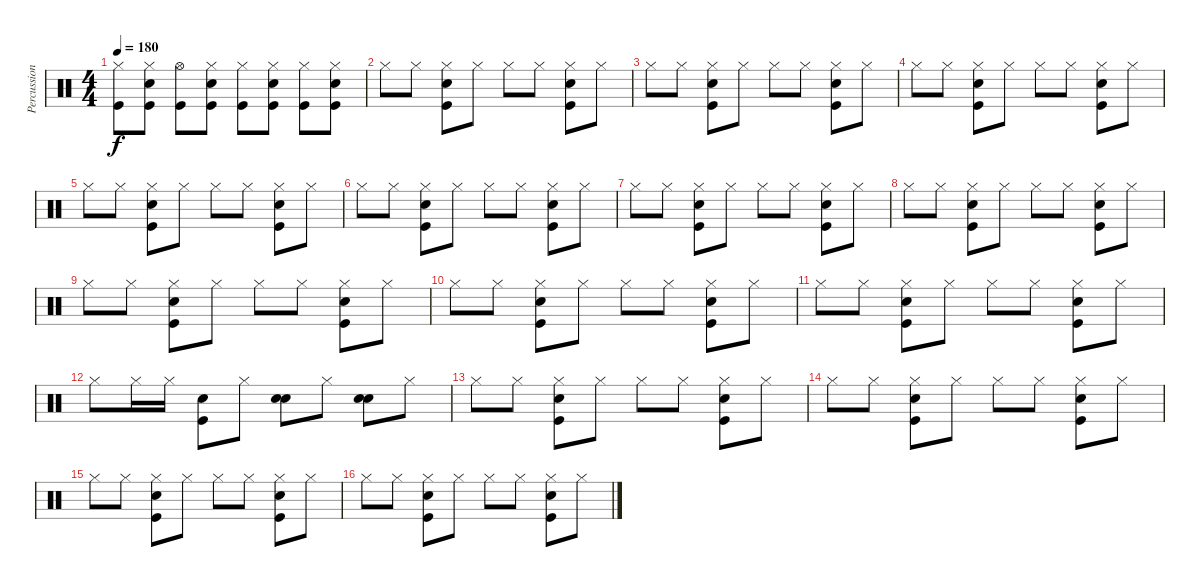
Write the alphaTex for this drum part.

\track ("Percussions" "Percussion") {instrument percussion}
\staff {score}
\articulation defaults
\ts (4 4)
\tempo 180
\clef neutral
\ks c
("Hi-Hat (closed)" "Kick (hit)").8{dy f} ("Electric Snare (hit)" "Hi-Hat (closed)" "Kick (hit)").8 ("Hi-Hat (open)" "Kick (hit)").8 ("Electric Snare (hit)" "Hi-Hat (closed)" "Kick (hit)").8 ("Hi-Hat (closed)" "Kick (hit)").8 ("Electric Snare (hit)" "Hi-Hat (closed)" "Kick (hit)").8 ("Hi-Hat (closed)" "Kick (hit)").8 ("Electric Snare (hit)" "Hi-Hat (closed)" "Kick (hit)").8 |
"Hi-Hat (closed)".8 "Hi-Hat (closed)".8 ("Hi-Hat (closed)" "Electric Snare (hit)" "Kick (hit)").8 "Hi-Hat (closed)".8 "Hi-Hat (closed)".8 "Hi-Hat (closed)".8 ("Hi-Hat (closed)" "Electric Snare (hit)" "Kick (hit)").8 "Hi-Hat (closed)".8 |
"Hi-Hat (closed)".8 "Hi-Hat (closed)".8 ("Hi-Hat (closed)" "Electric Snare (hit)" "Kick (hit)").8 "Hi-Hat (closed)".8 "Hi-Hat (closed)".8 "Hi-Hat (closed)".8 ("Hi-Hat (closed)" "Electric Snare (hit)" "Kick (hit)").8 "Hi-Hat (closed)".8 |
"Hi-Hat (closed)".8 "Hi-Hat (closed)".8 ("Hi-Hat (closed)" "Electric Snare (hit)" "Kick (hit)").8 "Hi-Hat (closed)".8 "Hi-Hat (closed)".8 "Hi-Hat (closed)".8 ("Hi-Hat (closed)" "Electric Snare (hit)" "Kick (hit)").8 "Hi-Hat (closed)".8 |
"Hi-Hat (closed)".8 "Hi-Hat (closed)".8 ("Hi-Hat (closed)" "Electric Snare (hit)" "Kick (hit)").8 "Hi-Hat (closed)".8 "Hi-Hat (closed)".8 "Hi-Hat (closed)".8 ("Hi-Hat (closed)" "Electric Snare (hit)" "Kick (hit)").8 "Hi-Hat (closed)".8 |
"Hi-Hat (closed)".8 "Hi-Hat (closed)".8 ("Hi-Hat (closed)" "Electric Snare (hit)" "Kick (hit)").8 "Hi-Hat (closed)".8 "Hi-Hat (closed)".8 "Hi-Hat (closed)".8 ("Hi-Hat (closed)" "Electric Snare (hit)" "Kick (hit)").8 "Hi-Hat (closed)".8 |
"Hi-Hat (closed)".8 "Hi-Hat (closed)".8 ("Hi-Hat (closed)" "Electric Snare (hit)" "Kick (hit)").8 "Hi-Hat (closed)".8 "Hi-Hat (closed)".8 "Hi-Hat (closed)".8 ("Hi-Hat (closed)" "Electric Snare (hit)" "Kick (hit)").8 "Hi-Hat (closed)".8 |
"Hi-Hat (closed)".8 "Hi-Hat (closed)".8 ("Hi-Hat (closed)" "Electric Snare (hit)" "Kick (hit)").8 "Hi-Hat (closed)".8 "Hi-Hat (closed)".8 "Hi-Hat (closed)".8 ("Hi-Hat (closed)" "Electric Snare (hit)" "Kick (hit)").8 "Hi-Hat (closed)".8 |
"Hi-Hat (closed)".8 "Hi-Hat (closed)".8 ("Hi-Hat (closed)" "Electric Snare (hit)" "Kick (hit)").8 "Hi-Hat (closed)".8 "Hi-Hat (closed)".8 "Hi-Hat (closed)".8 ("Hi-Hat (closed)" "Electric Snare (hit)" "Kick (hit)").8 "Hi-Hat (closed)".8 |
"Hi-Hat (closed)".8 "Hi-Hat (closed)".8 ("Hi-Hat (closed)" "Electric Snare (hit)" "Kick (hit)").8 "Hi-Hat (closed)".8 "Hi-Hat (closed)".8 "Hi-Hat (closed)".8 ("Hi-Hat (closed)" "Electric Snare (hit)" "Kick (hit)").8 "Hi-Hat (closed)".8 |
"Hi-Hat (closed)".8 "Hi-Hat (closed)".8 ("Hi-Hat (closed)" "Electric Snare (hit)" "Kick (hit)").8 "Hi-Hat (closed)".8 "Hi-Hat (closed)".8 "Hi-Hat (closed)".8 ("Hi-Hat (closed)" "Electric Snare (hit)" "Kick (hit)").8 "Hi-Hat (closed)".8 |
"Hi-Hat (closed)".8 "Hi-Hat (closed)".16 "Hi-Hat (closed)".16 ("Electric Snare (hit)" "Kick (hit)").8 "Hi-Hat (closed)".8 ("Electric Snare (hit)" "Snare (hit) 2").8 "Hi-Hat (closed)".8 ("Snare (hit) 2" "Electric Snare (hit)").8 "Hi-Hat (closed)".8 |
"Hi-Hat (closed)".8 "Hi-Hat (closed)".8 ("Hi-Hat (closed)" "Electric Snare (hit)" "Kick (hit)").8 "Hi-Hat (closed)".8 "Hi-Hat (closed)".8 "Hi-Hat (closed)".8 ("Hi-Hat (closed)" "Electric Snare (hit)" "Kick (hit)").8 "Hi-Hat (closed)".8 |
"Hi-Hat (closed)".8 "Hi-Hat (closed)".8 ("Hi-Hat (closed)" "Electric Snare (hit)" "Kick (hit)").8 "Hi-Hat (closed)".8 "Hi-Hat (closed)".8 "Hi-Hat (closed)".8 ("Hi-Hat (closed)" "Electric Snare (hit)" "Kick (hit)").8 "Hi-Hat (closed)".8 |
"Hi-Hat (closed)".8 "Hi-Hat (closed)".8 ("Hi-Hat (closed)" "Electric Snare (hit)" "Kick (hit)").8 "Hi-Hat (closed)".8 "Hi-Hat (closed)".8 "Hi-Hat (closed)".8 ("Hi-Hat (closed)" "Electric Snare (hit)" "Kick (hit)").8 "Hi-Hat (closed)".8 |
"Hi-Hat (closed)".8 "Hi-Hat (closed)".8 ("Hi-Hat (closed)" "Electric Snare (hit)" "Kick (hit)").8 "Hi-Hat (closed)".8 "Hi-Hat (closed)".8 "Hi-Hat (closed)".8 ("Hi-Hat (closed)" "Electric Snare (hit)" "Kick (hit)").8 "Hi-Hat (closed)".8
